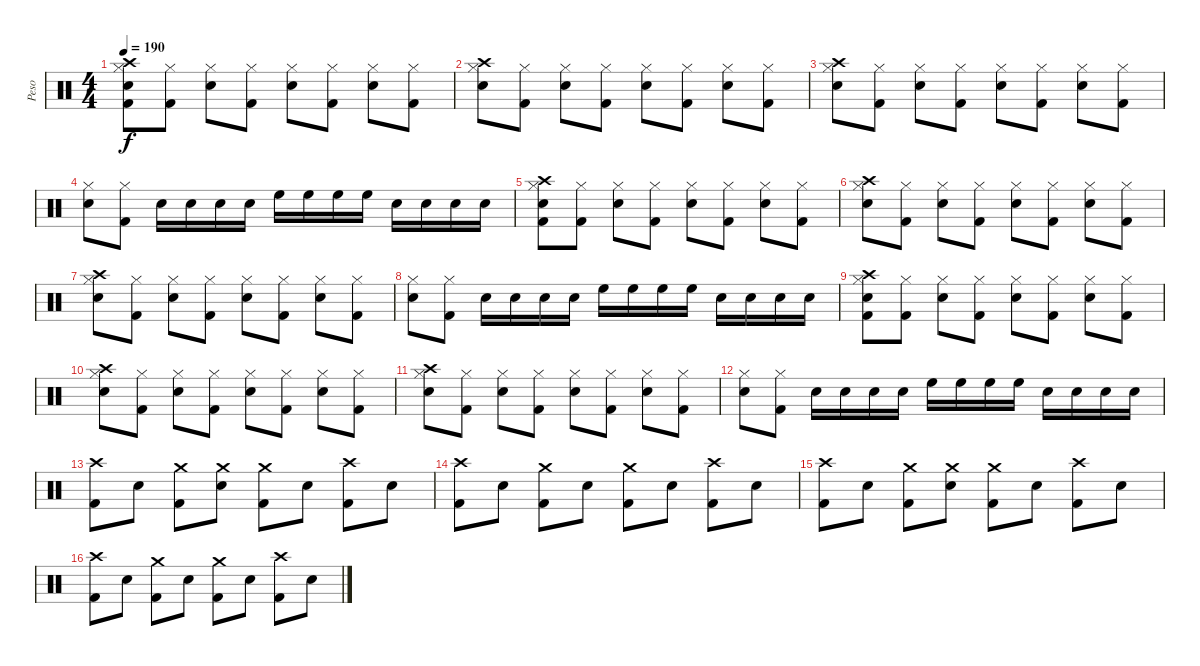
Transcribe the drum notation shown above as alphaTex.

\track ("Peso" "Peso") {instrument percussion}
\staff {score}
\articulation defaults
\ts (4 4)
\tempo 190
\clef neutral
\ks c
("Crash high (hit)" "Hi-Hat (closed)" "Snare (hit) 2" "Kick (hit) 2").8{dy f} ("Hi-Hat (closed)" "Kick (hit) 2").8 ("Hi-Hat (closed)" "Snare (hit) 2").8 ("Hi-Hat (closed)" "Kick (hit) 2").8 ("Hi-Hat (closed)" "Snare (hit) 2").8 ("Hi-Hat (closed)" "Kick (hit) 2").8 ("Hi-Hat (closed)" "Snare (hit) 2").8 ("Hi-Hat (closed)" "Kick (hit) 2").8 |
("Crash high (hit)" "Hi-Hat (closed)" "Snare (hit) 2").8 ("Hi-Hat (closed)" "Kick (hit) 2").8 ("Hi-Hat (closed)" "Snare (hit) 2").8 ("Hi-Hat (closed)" "Kick (hit) 2").8 ("Hi-Hat (closed)" "Snare (hit) 2").8 ("Hi-Hat (closed)" "Kick (hit) 2").8 ("Hi-Hat (closed)" "Snare (hit) 2").8 ("Hi-Hat (closed)" "Kick (hit) 2").8 |
("Crash high (hit)" "Hi-Hat (closed)" "Snare (hit) 2").8 ("Hi-Hat (closed)" "Kick (hit) 2").8 ("Hi-Hat (closed)" "Snare (hit) 2").8 ("Hi-Hat (closed)" "Kick (hit) 2").8 ("Hi-Hat (closed)" "Snare (hit) 2").8 ("Hi-Hat (closed)" "Kick (hit) 2").8 ("Hi-Hat (closed)" "Snare (hit) 2").8 ("Hi-Hat (closed)" "Kick (hit) 2").8 |
("Hi-Hat (closed)" "Snare (hit) 2").8 ("Hi-Hat (closed)" "Kick (hit) 2").8 "Snare (hit) 2".16 "Snare (hit) 2".16 "Snare (hit) 2".16 "Snare (hit) 2".16 "High Floor Tom (hit)".16 "High Floor Tom (hit)".16 "High Floor Tom (hit)".16 "High Floor Tom (hit)".16 "Snare (hit) 2".16 "Snare (hit) 2".16 "Snare (hit) 2".16 "Snare (hit) 2".16 |
("Crash high (hit)" "Hi-Hat (closed)" "Snare (hit) 2" "Kick (hit) 2").8 ("Hi-Hat (closed)" "Kick (hit) 2").8 ("Hi-Hat (closed)" "Snare (hit) 2").8 ("Hi-Hat (closed)" "Kick (hit) 2").8 ("Hi-Hat (closed)" "Snare (hit) 2").8 ("Hi-Hat (closed)" "Kick (hit) 2").8 ("Hi-Hat (closed)" "Snare (hit) 2").8 ("Hi-Hat (closed)" "Kick (hit) 2").8 |
("Crash high (hit)" "Hi-Hat (closed)" "Snare (hit) 2").8 ("Hi-Hat (closed)" "Kick (hit) 2").8 ("Hi-Hat (closed)" "Snare (hit) 2").8 ("Hi-Hat (closed)" "Kick (hit) 2").8 ("Hi-Hat (closed)" "Snare (hit) 2").8 ("Hi-Hat (closed)" "Kick (hit) 2").8 ("Hi-Hat (closed)" "Snare (hit) 2").8 ("Hi-Hat (closed)" "Kick (hit) 2").8 |
("Crash high (hit)" "Hi-Hat (closed)" "Snare (hit) 2").8 ("Hi-Hat (closed)" "Kick (hit) 2").8 ("Hi-Hat (closed)" "Snare (hit) 2").8 ("Hi-Hat (closed)" "Kick (hit) 2").8 ("Hi-Hat (closed)" "Snare (hit) 2").8 ("Hi-Hat (closed)" "Kick (hit) 2").8 ("Hi-Hat (closed)" "Snare (hit) 2").8 ("Hi-Hat (closed)" "Kick (hit) 2").8 |
("Hi-Hat (closed)" "Snare (hit) 2").8 ("Hi-Hat (closed)" "Kick (hit) 2").8 "Snare (hit) 2".16 "Snare (hit) 2".16 "Snare (hit) 2".16 "Snare (hit) 2".16 "High Floor Tom (hit)".16 "High Floor Tom (hit)".16 "High Floor Tom (hit)".16 "High Floor Tom (hit)".16 "Snare (hit) 2".16 "Snare (hit) 2".16 "Snare (hit) 2".16 "Snare (hit) 2".16 |
("Crash high (hit)" "Hi-Hat (closed)" "Snare (hit) 2" "Kick (hit) 2").8 ("Hi-Hat (closed)" "Kick (hit) 2").8 ("Hi-Hat (closed)" "Snare (hit) 2").8 ("Hi-Hat (closed)" "Kick (hit) 2").8 ("Hi-Hat (closed)" "Snare (hit) 2").8 ("Hi-Hat (closed)" "Kick (hit) 2").8 ("Hi-Hat (closed)" "Snare (hit) 2").8 ("Hi-Hat (closed)" "Kick (hit) 2").8 |
("Crash high (hit)" "Hi-Hat (closed)" "Snare (hit) 2").8 ("Hi-Hat (closed)" "Kick (hit) 2").8 ("Hi-Hat (closed)" "Snare (hit) 2").8 ("Hi-Hat (closed)" "Kick (hit) 2").8 ("Hi-Hat (closed)" "Snare (hit) 2").8 ("Hi-Hat (closed)" "Kick (hit) 2").8 ("Hi-Hat (closed)" "Snare (hit) 2").8 ("Hi-Hat (closed)" "Kick (hit) 2").8 |
("Crash high (hit)" "Hi-Hat (closed)" "Snare (hit) 2").8 ("Hi-Hat (closed)" "Kick (hit) 2").8 ("Hi-Hat (closed)" "Snare (hit) 2").8 ("Hi-Hat (closed)" "Kick (hit) 2").8 ("Hi-Hat (closed)" "Snare (hit) 2").8 ("Hi-Hat (closed)" "Kick (hit) 2").8 ("Hi-Hat (closed)" "Snare (hit) 2").8 ("Hi-Hat (closed)" "Kick (hit) 2").8 |
("Hi-Hat (closed)" "Snare (hit) 2").8 ("Hi-Hat (closed)" "Kick (hit) 2").8 "Snare (hit) 2".16 "Snare (hit) 2".16 "Snare (hit) 2".16 "Snare (hit) 2".16 "High Floor Tom (hit)".16 "High Floor Tom (hit)".16 "High Floor Tom (hit)".16 "High Floor Tom (hit)".16 "Snare (hit) 2".16 "Snare (hit) 2".16 "Snare (hit) 2".16 "Snare (hit) 2".16 |
("Crash high (hit)" "Kick (hit) 2").8 "Snare (hit) 2".8 ("Crash medium (hit)" "Kick (hit) 2").8 ("Crash medium (hit)" "Snare (hit) 2").8 ("Crash medium (hit)" "Kick (hit) 2").8 "Snare (hit) 2".8 ("Crash high (hit)" "Kick (hit) 2").8 "Snare (hit) 2".8 |
("Crash high (hit)" "Kick (hit) 2").8 "Snare (hit) 2".8 ("Crash medium (hit)" "Kick (hit) 2").8 "Snare (hit) 2".8 ("Crash medium (hit)" "Kick (hit) 2").8 "Snare (hit) 2".8 ("Crash high (hit)" "Kick (hit) 2").8 "Snare (hit) 2".8 |
("Crash high (hit)" "Kick (hit) 2").8 "Snare (hit) 2".8 ("Crash medium (hit)" "Kick (hit) 2").8 ("Crash medium (hit)" "Snare (hit) 2").8 ("Crash medium (hit)" "Kick (hit) 2").8 "Snare (hit) 2".8 ("Crash high (hit)" "Kick (hit) 2").8 "Snare (hit) 2".8 |
("Crash high (hit)" "Kick (hit) 2").8 "Snare (hit) 2".8 ("Crash medium (hit)" "Kick (hit) 2").8 "Snare (hit) 2".8 ("Crash medium (hit)" "Kick (hit) 2").8 "Snare (hit) 2".8 ("Crash high (hit)" "Kick (hit) 2").8 "Snare (hit) 2".8
